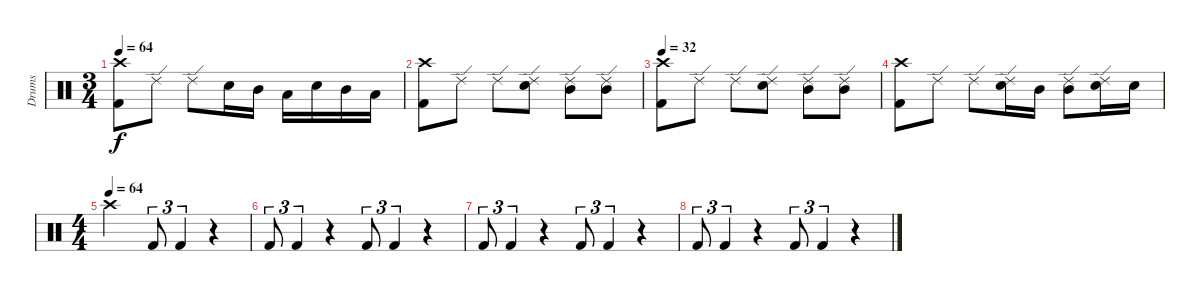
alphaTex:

\track ("Drums" "Drums") {instrument percussion}
\staff {score}
\articulation defaults
\ts (3 4)
\tempo 64
\clef neutral
\ks c
("Crash high (hit)" "Kick (hit) 2").8{dy f} "Ride (edge) 2".8 "Ride (edge) 2".8 "Snare (hit) 2".16 "Mid Tom (hit)".16 "Low Tom (hit)".16 "Snare (hit) 2".16 "Mid Tom (hit)".16 "Low Tom (hit)".16 |
("Crash high (hit)" "Kick (hit) 2").8 "Ride (edge) 2".8 "Ride (edge) 2".8 ("Ride (edge) 2" "Snare (hit) 2").8 ("Ride (edge) 2" "Mid Tom (hit)").8 ("Ride (edge) 2" "Mid Tom (hit)").8 |
\tempo 32
("Crash high (hit)" "Kick (hit) 2").8 "Ride (edge) 2".8 "Ride (edge) 2".8 ("Ride (edge) 2" "Snare (hit) 2").8 ("Ride (edge) 2" "Mid Tom (hit)").8 ("Ride (edge) 2" "Mid Tom (hit)").8 |
("Crash high (hit)" "Kick (hit) 2").8 "Ride (edge) 2".8 "Ride (edge) 2".8 ("Snare (hit) 2" "Ride (edge) 2").16 "Mid Tom (hit)".16 ("Mid Tom (hit)" "Ride (edge) 2").8 ("Snare (hit) 2" "Ride (edge) 2").16 "Snare (hit) 2".16 |
\ts (4 4)
\tempo (64)
"Crash high (hit)".2{volume 0} "Kick (hit) 2".8{tu (3 2)} "Kick (hit) 2".4{tu (3 2)} r.4 |
"Kick (hit) 2".8{tu (3 2)} "Kick (hit) 2".4{tu (3 2)} r.4 "Kick (hit) 2".8{tu (3 2)} "Kick (hit) 2".4{tu (3 2)} r.4 |
"Kick (hit) 2".8{tu (3 2)} "Kick (hit) 2".4{tu (3 2)} r.4 "Kick (hit) 2".8{tu (3 2)} "Kick (hit) 2".4{tu (3 2)} r.4 |
"Kick (hit) 2".8{tu (3 2)} "Kick (hit) 2".4{tu (3 2)} r.4 "Kick (hit) 2".8{tu (3 2)} "Kick (hit) 2".4{tu (3 2)} r.4
